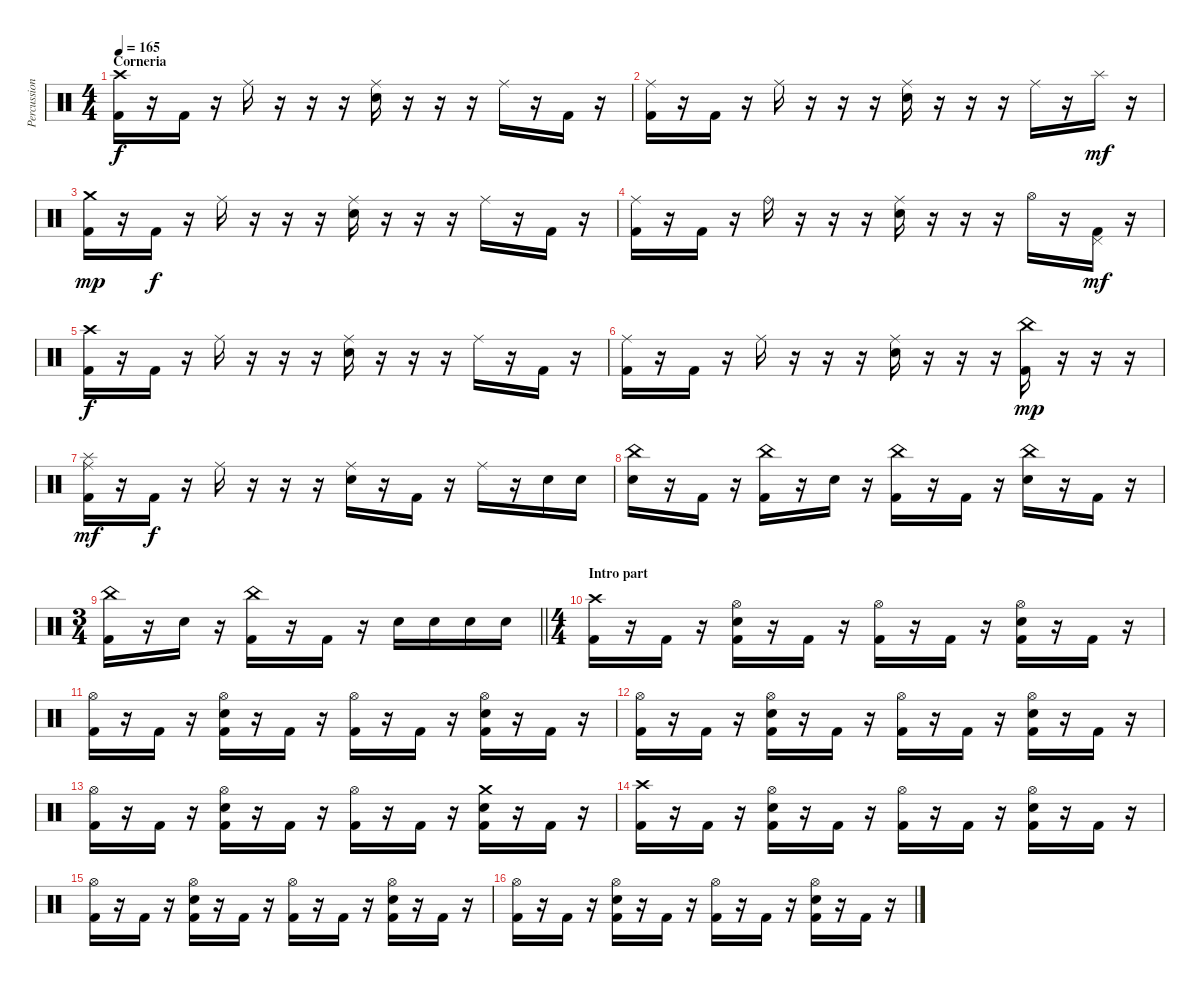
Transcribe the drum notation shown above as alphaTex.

\track ("Percussion" "Percussion") {instrument percussion}
\staff {score}
\articulation defaults
\ts (4 4)
\section ("" "Corneria")
\tempo 165
\clef neutral
\ks c
("Crash high (hit)" "Kick (hit) 2").16{dy f} r.16 "Kick (hit) 2".16 r.16 "Ride (middle)".16 r.16 r.16 r.16 ("Ride (middle)" "Snare (hit) 2").16 r.16 r.16 r.16 "Ride (middle)".16 r.16 "Kick (hit) 2".16 r.16 |
("Ride (middle)" "Kick (hit) 2").16 r.16 "Kick (hit) 2".16 r.16 "Ride (middle)".16 r.16 r.16 r.16 ("Ride (middle)" "Snare (hit) 2").16 r.16 r.16 r.16 "Ride (middle)".16 r.16 "Splash (hit)".16{dy mf} r.16 |
("Crash medium (hit)" "Kick (hit) 2").16{dy mp} r.16 "Kick (hit) 2".16{dy f} r.16 "Ride (middle)".16 r.16 r.16 r.16 ("Ride (middle)" "Snare (hit) 2").16 r.16 r.16 r.16 "Ride (middle)".16 r.16 "Kick (hit) 2".16 r.16 |
("Ride (middle)" "Kick (hit) 2").16 r.16 "Kick (hit) 2".16 r.16 "Ride (bell)".16 r.16 r.16 r.16 ("Ride (middle)" "Snare (hit) 2").16 r.16 r.16 r.16 "Hi-Hat (open)".16 r.16 ("Pedal Hi-Hat (hit)" "Kick (hit) 2").16{dy mf} r.16 |
("Crash high (hit)" "Kick (hit) 2").16{dy f} r.16 "Kick (hit) 2".16 r.16 "Ride (middle)".16 r.16 r.16 r.16 ("Ride (middle)" "Snare (hit) 2").16 r.16 r.16 r.16 "Ride (middle)".16 r.16 "Kick (hit) 2".16 r.16 |
("Ride (middle)" "Kick (hit) 2").16 r.16 "Kick (hit) 2".16 r.16 "Ride (middle)".16 r.16 r.16 r.16 ("Ride (middle)" "Snare (hit) 2").16 r.16 r.16 r.16 ("China (hit)" "Kick (hit) 2").16{dy mp} r.16 r.16 r.16 |
("Splash (hit)" "Ride (middle)" "Kick (hit) 2").16{dy mf} r.16 "Kick (hit) 2".16{dy f} r.16 "Ride (middle)".16 r.16 r.16 r.16 ("Ride (middle)" "Snare (hit) 2").16 r.16 "Kick (hit) 2".16 r.16 "Ride (middle)".16 r.16 "Snare (hit) 2".16 "Snare (hit) 2".16 |
("China (hit)" "Snare (hit) 2").16 r.16 "Kick (hit) 2".16 r.16 ("China (hit)" "Kick (hit) 2").16 r.16 "Snare (hit) 2".16 r.16 ("China (hit)" "Kick (hit) 2").16 r.16 "Kick (hit) 2".16 r.16 ("China (hit)" "Snare (hit) 2").16 r.16 "Kick (hit) 2".16 r.16 |
\ts (3 4)
\barLineRight lightlight
("China (hit)" "Kick (hit) 2").16 r.16 "Snare (hit) 2".16 r.16 ("China (hit)" "Kick (hit) 2").16 r.16 "Kick (hit) 2".16 r.16 "Snare (hit) 2".16 "Snare (hit) 2".16 "Snare (hit) 2".16 "Snare (hit) 2".16 |
\ts (4 4)
\section ("" "Intro part")
("Crash high (hit)" "Kick (hit) 2").16 r.16 "Kick (hit) 2".16 r.16 ("Hi-Hat (open)" "Snare (hit) 2" "Kick (hit) 2").16 r.16 "Kick (hit) 2".16 r.16 ("Hi-Hat (open)" "Kick (hit) 2").16 r.16 "Kick (hit) 2".16 r.16 ("Hi-Hat (open)" "Snare (hit) 2" "Kick (hit) 2").16 r.16 "Kick (hit) 2".16 r.16 |
("Hi-Hat (open)" "Kick (hit) 2").16 r.16 "Kick (hit) 2".16 r.16 ("Hi-Hat (open)" "Snare (hit) 2" "Kick (hit) 2").16 r.16 "Kick (hit) 2".16 r.16 ("Hi-Hat (open)" "Kick (hit) 2").16 r.16 "Kick (hit) 2".16 r.16 ("Hi-Hat (open)" "Snare (hit) 2" "Kick (hit) 2").16 r.16 "Kick (hit) 2".16 r.16 |
("Hi-Hat (open)" "Kick (hit) 2").16 r.16 "Kick (hit) 2".16 r.16 ("Hi-Hat (open)" "Snare (hit) 2" "Kick (hit) 2").16 r.16 "Kick (hit) 2".16 r.16 ("Hi-Hat (open)" "Kick (hit) 2").16 r.16 "Kick (hit) 2".16 r.16 ("Hi-Hat (open)" "Snare (hit) 2" "Kick (hit) 2").16 r.16 "Kick (hit) 2".16 r.16 |
("Hi-Hat (open)" "Kick (hit) 2").16 r.16 "Kick (hit) 2".16 r.16 ("Hi-Hat (open)" "Snare (hit) 2" "Kick (hit) 2").16 r.16 "Kick (hit) 2".16 r.16 ("Hi-Hat (open)" "Kick (hit) 2").16 r.16 "Kick (hit) 2".16 r.16 ("Crash medium (hit)" "Snare (hit) 2" "Kick (hit) 2").16 r.16 "Kick (hit) 2".16 r.16 |
("Crash high (hit)" "Kick (hit) 2").16 r.16 "Kick (hit) 2".16 r.16 ("Hi-Hat (open)" "Snare (hit) 2" "Kick (hit) 2").16 r.16 "Kick (hit) 2".16 r.16 ("Hi-Hat (open)" "Kick (hit) 2").16 r.16 "Kick (hit) 2".16 r.16 ("Hi-Hat (open)" "Snare (hit) 2" "Kick (hit) 2").16 r.16 "Kick (hit) 2".16 r.16 |
("Hi-Hat (open)" "Kick (hit) 2").16 r.16 "Kick (hit) 2".16 r.16 ("Hi-Hat (open)" "Snare (hit) 2" "Kick (hit) 2").16 r.16 "Kick (hit) 2".16 r.16 ("Hi-Hat (open)" "Kick (hit) 2").16 r.16 "Kick (hit) 2".16 r.16 ("Hi-Hat (open)" "Snare (hit) 2" "Kick (hit) 2").16 r.16 "Kick (hit) 2".16 r.16 |
("Hi-Hat (open)" "Kick (hit) 2").16 r.16 "Kick (hit) 2".16 r.16 ("Hi-Hat (open)" "Snare (hit) 2" "Kick (hit) 2").16 r.16 "Kick (hit) 2".16 r.16 ("Hi-Hat (open)" "Kick (hit) 2").16 r.16 "Kick (hit) 2".16 r.16 ("Hi-Hat (open)" "Snare (hit) 2" "Kick (hit) 2").16 r.16 "Kick (hit) 2".16 r.16
